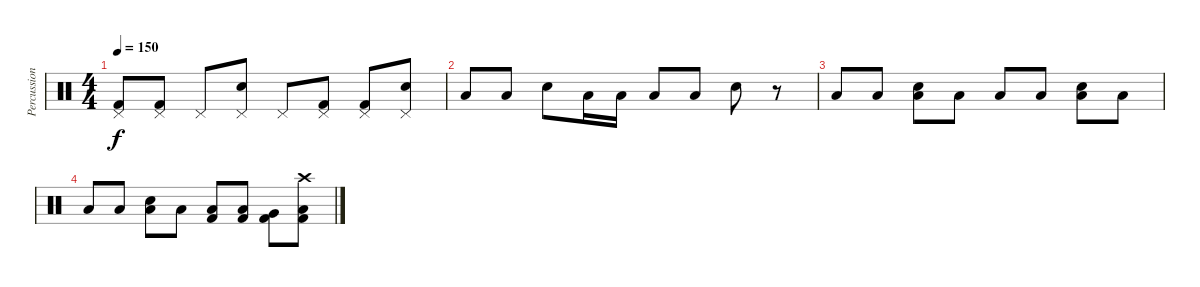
\track ("Percussion" "Percussion") {instrument percussion}
\staff {score}
\articulation defaults
\ts (4 4)
\tempo 150
\clef neutral
\ks c
("Pedal Hi-Hat (hit)" "Kick (hit) 2").8{dy f} ("Pedal Hi-Hat (hit)" "Kick (hit) 2").8 "Pedal Hi-Hat (hit)".8 ("Pedal Hi-Hat (hit)" "Electric Snare (hit)").8 "Pedal Hi-Hat (hit)".8 ("Pedal Hi-Hat (hit)" "Kick (hit) 2").8 ("Pedal Hi-Hat (hit)" "Kick (hit) 2").8 ("Pedal Hi-Hat (hit)" "Electric Snare (hit)").8 |
"Low Floor Tom (hit)".8 "Low Floor Tom (hit)".8 "Electric Snare (hit)".8 "Low Floor Tom (hit)".16 "Low Floor Tom (hit)".16 "Low Floor Tom (hit)".8 "Low Floor Tom (hit)".8 "Electric Snare (hit)".8 r.8 |
"Low Floor Tom (hit)".8 "Low Floor Tom (hit)".8 ("Low Floor Tom (hit)" "Electric Snare (hit)").8 "Low Floor Tom (hit)".8 "Low Floor Tom (hit)".8 "Low Floor Tom (hit)".8 ("Low Floor Tom (hit)" "Electric Snare (hit)").8 "Low Floor Tom (hit)".8 |
"Low Floor Tom (hit)".8 "Low Floor Tom (hit)".8 ("Low Floor Tom (hit)" "Electric Snare (hit)").8 "Low Floor Tom (hit)".8 ("Low Floor Tom (hit)" "Kick (hit) 2").8 ("Low Tom (hit)" "Kick (hit) 2").8 ("Very Low Tom (hit)" "Kick (hit) 2").8 ("Crash high (hit)" "Low Floor Tom (hit)" "Kick (hit) 2").8
